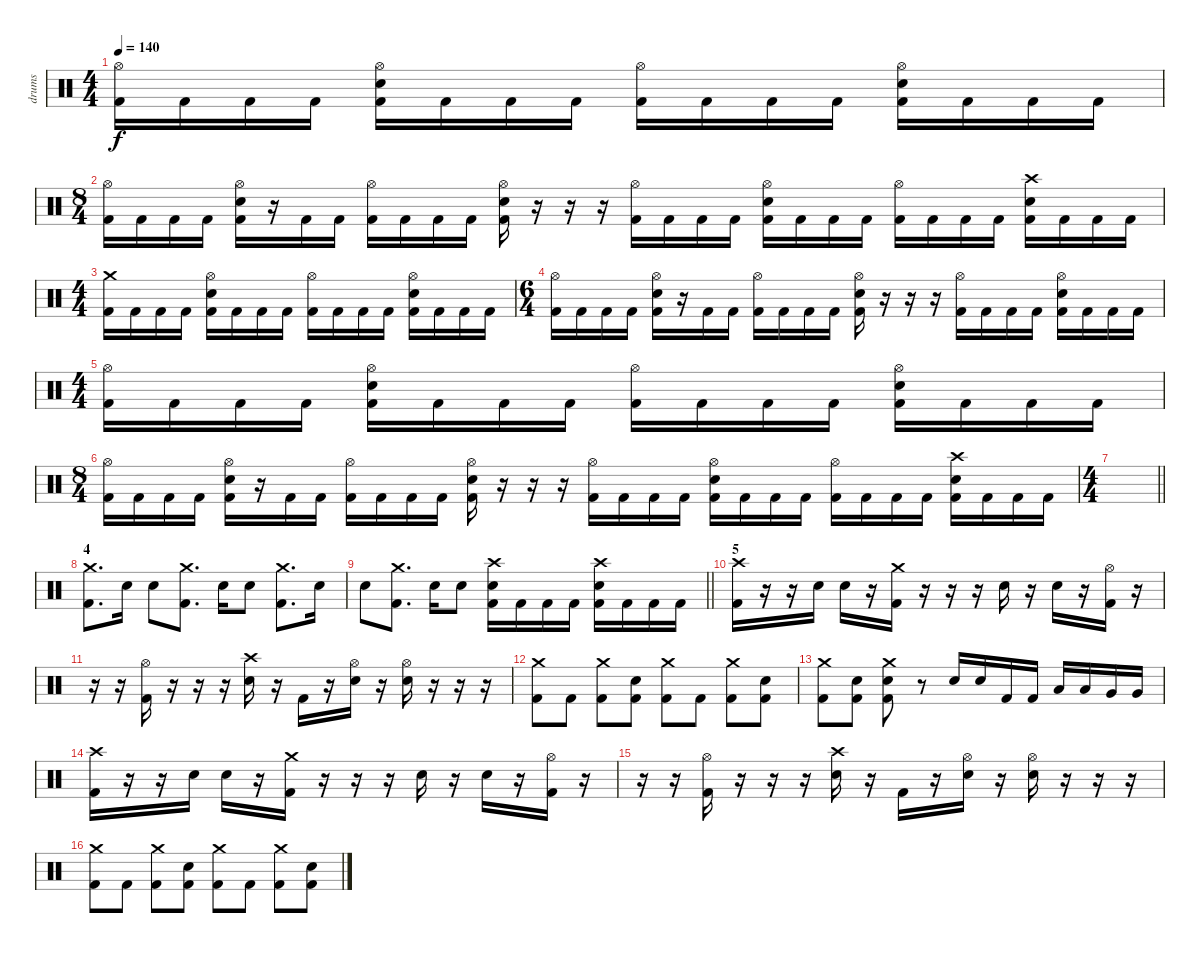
\track ("drums" "drums") {instrument percussion}
\staff {score}
\articulation defaults
\ts (4 4)
\tempo 140
\clef neutral
\ks c
("Hi-Hat (open)" "Kick (hit) 2").16{dy f} "Kick (hit) 2".16 "Kick (hit) 2".16 "Kick (hit) 2".16 ("Hi-Hat (open)" "Electric Snare (hit)" "Kick (hit) 2").16 "Kick (hit) 2".16 "Kick (hit) 2".16 "Kick (hit) 2".16 ("Hi-Hat (open)" "Kick (hit) 2").16 "Kick (hit) 2".16 "Kick (hit) 2".16 "Kick (hit) 2".16 ("Hi-Hat (open)" "Electric Snare (hit)" "Kick (hit) 2").16 "Kick (hit) 2".16 "Kick (hit) 2".16 "Kick (hit) 2".16 |
\ts (8 4)
("Hi-Hat (open)" "Kick (hit) 2").16 "Kick (hit) 2".16 "Kick (hit) 2".16 "Kick (hit) 2".16 ("Hi-Hat (open)" "Electric Snare (hit)" "Kick (hit) 2").16 r.16 "Kick (hit) 2".16 "Kick (hit) 2".16 ("Hi-Hat (open)" "Kick (hit) 2").16 "Kick (hit) 2".16 "Kick (hit) 2".16 "Kick (hit) 2".16 ("Hi-Hat (open)" "Electric Snare (hit)" "Kick (hit) 2").16 r.16 r.16 r.16 ("Hi-Hat (open)" "Kick (hit) 2").16 "Kick (hit) 2".16 "Kick (hit) 2".16 "Kick (hit) 2".16 ("Hi-Hat (open)" "Electric Snare (hit)" "Kick (hit) 2").16 "Kick (hit) 2".16 "Kick (hit) 2".16 "Kick (hit) 2".16 ("Hi-Hat (open)" "Kick (hit) 2").16 "Kick (hit) 2".16 "Kick (hit) 2".16 "Kick (hit) 2".16 ("Crash high (hit)" "Electric Snare (hit)" "Kick (hit) 2").16 "Kick (hit) 2".16 "Kick (hit) 2".16 "Kick (hit) 2".16 |
\ts (4 4)
("Crash medium (hit)" "Kick (hit) 2").16 "Kick (hit) 2".16 "Kick (hit) 2".16 "Kick (hit) 2".16 ("Hi-Hat (open)" "Electric Snare (hit)" "Kick (hit) 2").16 "Kick (hit) 2".16 "Kick (hit) 2".16 "Kick (hit) 2".16 ("Hi-Hat (open)" "Kick (hit) 2").16 "Kick (hit) 2".16 "Kick (hit) 2".16 "Kick (hit) 2".16 ("Hi-Hat (open)" "Electric Snare (hit)" "Kick (hit) 2").16 "Kick (hit) 2".16 "Kick (hit) 2".16 "Kick (hit) 2".16 |
\ts (6 4)
("Hi-Hat (open)" "Kick (hit) 2").16 "Kick (hit) 2".16 "Kick (hit) 2".16 "Kick (hit) 2".16 ("Hi-Hat (open)" "Electric Snare (hit)" "Kick (hit) 2").16 r.16 "Kick (hit) 2".16 "Kick (hit) 2".16 ("Hi-Hat (open)" "Kick (hit) 2").16 "Kick (hit) 2".16 "Kick (hit) 2".16 "Kick (hit) 2".16 ("Hi-Hat (open)" "Electric Snare (hit)" "Kick (hit) 2").16 r.16 r.16 r.16 ("Hi-Hat (open)" "Kick (hit) 2").16 "Kick (hit) 2".16 "Kick (hit) 2".16 "Kick (hit) 2".16 ("Hi-Hat (open)" "Electric Snare (hit)" "Kick (hit) 2").16 "Kick (hit) 2".16 "Kick (hit) 2".16 "Kick (hit) 2".16 |
\ts (4 4)
("Hi-Hat (open)" "Kick (hit) 2").16 "Kick (hit) 2".16 "Kick (hit) 2".16 "Kick (hit) 2".16 ("Hi-Hat (open)" "Electric Snare (hit)" "Kick (hit) 2").16 "Kick (hit) 2".16 "Kick (hit) 2".16 "Kick (hit) 2".16 ("Hi-Hat (open)" "Kick (hit) 2").16 "Kick (hit) 2".16 "Kick (hit) 2".16 "Kick (hit) 2".16 ("Hi-Hat (open)" "Electric Snare (hit)" "Kick (hit) 2").16 "Kick (hit) 2".16 "Kick (hit) 2".16 "Kick (hit) 2".16 |
\ts (8 4)
("Hi-Hat (open)" "Kick (hit) 2").16 "Kick (hit) 2".16 "Kick (hit) 2".16 "Kick (hit) 2".16 ("Hi-Hat (open)" "Electric Snare (hit)" "Kick (hit) 2").16 r.16 "Kick (hit) 2".16 "Kick (hit) 2".16 ("Hi-Hat (open)" "Kick (hit) 2").16 "Kick (hit) 2".16 "Kick (hit) 2".16 "Kick (hit) 2".16 ("Hi-Hat (open)" "Electric Snare (hit)" "Kick (hit) 2").16 r.16 r.16 r.16 ("Hi-Hat (open)" "Kick (hit) 2").16 "Kick (hit) 2".16 "Kick (hit) 2".16 "Kick (hit) 2".16 ("Hi-Hat (open)" "Electric Snare (hit)" "Kick (hit) 2").16 "Kick (hit) 2".16 "Kick (hit) 2".16 "Kick (hit) 2".16 ("Hi-Hat (open)" "Kick (hit) 2").16 "Kick (hit) 2".16 "Kick (hit) 2".16 "Kick (hit) 2".16 ("Crash high (hit)" "Electric Snare (hit)" "Kick (hit) 2").16 "Kick (hit) 2".16 "Kick (hit) 2".16 "Kick (hit) 2".16 |
\ts (4 4)
\barLineRight lightlight
|
\section ("" "4")
("Crash medium (hit)" "Kick (hit) 2").8{d} "Electric Snare (hit)".16 "Electric Snare (hit)".8 ("Crash medium (hit)" "Kick (hit) 2").8{d} "Electric Snare (hit)".16 "Electric Snare (hit)".8 ("Crash medium (hit)" "Kick (hit) 2").8{d} "Electric Snare (hit)".16 |
\barLineRight lightlight "Electric Snare (hit)".8
("Crash medium (hit)" "Kick (hit) 2").8{d} "Electric Snare (hit)".16 "Electric Snare (hit)".8 ("Crash high (hit)" "Electric Snare (hit)" "Kick (hit) 2").16 "Kick (hit) 2".16 "Kick (hit) 2".16 "Kick (hit) 2".16 ("Crash high (hit)" "Electric Snare (hit)" "Kick (hit) 2").16 "Kick (hit) 2".16 "Kick (hit) 2".16 "Kick (hit) 2".16 |
\section ("" "5")
("Crash high (hit)" "Kick (hit) 2").16 r.16 r.16 "Electric Snare (hit)".16 "Electric Snare (hit)".16 r.16 ("Crash medium (hit)" "Kick (hit) 2").16 r.16 r.16 r.16 "Electric Snare (hit)".16 r.16 "Electric Snare (hit)".16 r.16 ("Hi-Hat (open)" "Kick (hit) 2").16 r.16 |
r.16 r.16 ("Hi-Hat (open)" "Kick (hit) 2").16 r.16 r.16 r.16 ("Crash high (hit)" "Electric Snare (hit)").16 r.16 "Kick (hit) 2".16 r.16 ("Hi-Hat (open)" "Electric Snare (hit)").16 r.16 ("Hi-Hat (open)" "Electric Snare (hit)").16 r.16 r.16 r.16 |
("Crash medium (hit)" "Kick (hit) 2").8 "Kick (hit) 2".8 ("Crash medium (hit)" "Kick (hit) 2").8 ("Electric Snare (hit)" "Kick (hit) 2").8 ("Crash medium (hit)" "Kick (hit) 2").8 "Kick (hit) 2".8 ("Crash medium (hit)" "Kick (hit) 2").8 ("Electric Snare (hit)" "Kick (hit) 2").8 |
("Crash medium (hit)" "Kick (hit) 2").8 ("Electric Snare (hit)" "Kick (hit) 2").8 ("Crash medium (hit)" "Electric Snare (hit)" "Kick (hit) 2").8 r.8 "Electric Snare (hit)".16 "Electric Snare (hit)".16 "Kick (hit) 2".16 "Kick (hit) 2".16 "Low Tom (hit)".16 "Low Tom (hit)".16 "Very Low Tom (hit)".16 "Very Low Tom (hit)".16 |
("Crash high (hit)" "Kick (hit) 2").16 r.16 r.16 "Electric Snare (hit)".16 "Electric Snare (hit)".16 r.16 ("Crash medium (hit)" "Kick (hit) 2").16 r.16 r.16 r.16 "Electric Snare (hit)".16 r.16 "Electric Snare (hit)".16 r.16 ("Hi-Hat (open)" "Kick (hit) 2").16 r.16 |
r.16 r.16 ("Hi-Hat (open)" "Kick (hit) 2").16 r.16 r.16 r.16 ("Crash high (hit)" "Electric Snare (hit)").16 r.16 "Kick (hit) 2".16 r.16 ("Hi-Hat (open)" "Electric Snare (hit)").16 r.16 ("Hi-Hat (open)" "Electric Snare (hit)").16 r.16 r.16 r.16 |
("Crash medium (hit)" "Kick (hit) 2").8 "Kick (hit) 2".8 ("Crash medium (hit)" "Kick (hit) 2").8 ("Electric Snare (hit)" "Kick (hit) 2").8 ("Crash medium (hit)" "Kick (hit) 2").8 "Kick (hit) 2".8 ("Crash medium (hit)" "Kick (hit) 2").8 ("Electric Snare (hit)" "Kick (hit) 2").8
